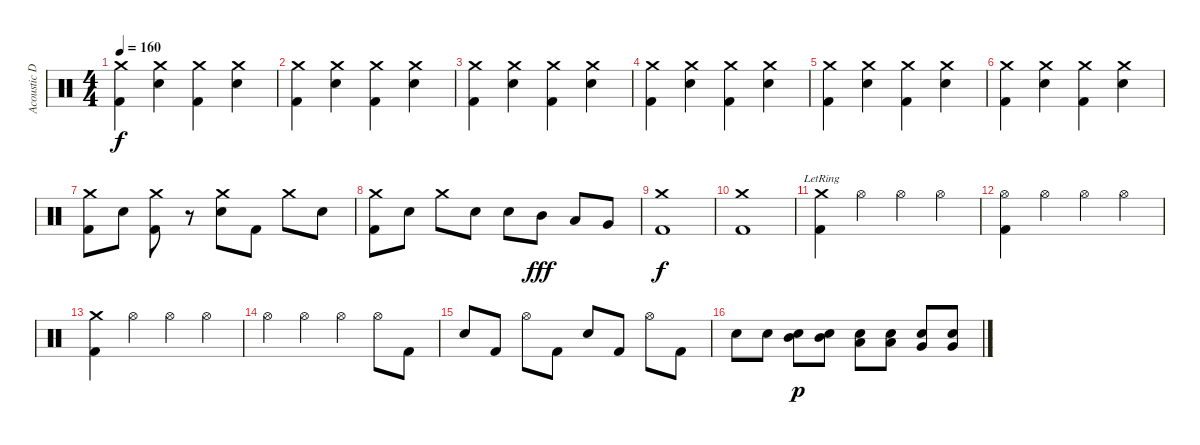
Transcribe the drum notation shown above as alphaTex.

\track ("Acoustic Drums" "Acoustic D") {instrument percussion}
\staff {score}
\articulation defaults
\ts (4 4)
\tempo 160
\clef neutral
\ks c
("Crash medium (hit)" "Kick (hit) 2").4{dy f} ("Crash medium (hit)" "Snare (hit) 2").4 ("Crash medium (hit)" "Kick (hit) 2").4 ("Crash medium (hit)" "Snare (hit) 2").4 |
("Crash medium (hit)" "Kick (hit) 2").4 ("Crash medium (hit)" "Snare (hit) 2").4 ("Crash medium (hit)" "Kick (hit) 2").4 ("Crash medium (hit)" "Snare (hit) 2").4 |
("Crash medium (hit)" "Kick (hit) 2").4 ("Crash medium (hit)" "Snare (hit) 2").4 ("Crash medium (hit)" "Kick (hit) 2").4 ("Crash medium (hit)" "Snare (hit) 2").4 |
("Crash medium (hit)" "Kick (hit) 2").4 ("Crash medium (hit)" "Snare (hit) 2").4 ("Crash medium (hit)" "Kick (hit) 2").4 ("Crash medium (hit)" "Snare (hit) 2").4 |
("Crash medium (hit)" "Kick (hit) 2").4 ("Crash medium (hit)" "Snare (hit) 2").4 ("Crash medium (hit)" "Kick (hit) 2").4 ("Crash medium (hit)" "Snare (hit) 2").4 |
("Crash medium (hit)" "Kick (hit) 2").4 ("Crash medium (hit)" "Snare (hit) 2").4 ("Crash medium (hit)" "Kick (hit) 2").4 ("Crash medium (hit)" "Snare (hit) 2").4 |
("Crash medium (hit)" "Kick (hit) 2").8 "Snare (hit) 2".8 ("Crash medium (hit)" "Kick (hit) 2").8 r.8 ("Crash medium (hit)" "Snare (hit) 2").8 "Kick (hit) 2".8 "Crash medium (hit)".8 "Snare (hit) 2".8 |
("Crash medium (hit)" "Kick (hit) 2").8 "Snare (hit) 2".8 "Crash medium (hit)".8 "Snare (hit) 2".8 "Snare (hit) 2".8 "Mid Tom (hit)".8{dy fff} "Low Tom (hit)".8 "Very Low Tom (hit)".8 |
("Crash medium (hit)" "Kick (hit) 2").1{dy f} |
("Crash medium (hit)" "Kick (hit) 2").1 |
("Crash medium (hit)"{lr} "Kick (hit) 2").4 "Hi-Hat (open)".4 "Hi-Hat (open)".4 "Hi-Hat (open)".4 |
("Hi-Hat (open)" "Kick (hit) 2").4 "Hi-Hat (open)".4 "Hi-Hat (open)".4 "Hi-Hat (open)".4 |
("Crash medium (hit)" "Kick (hit) 2").4 "Hi-Hat (open)".4 "Hi-Hat (open)".4 "Hi-Hat (open)".4 |
"Hi-Hat (open)".4 "Hi-Hat (open)".4 "Hi-Hat (open)".4 "Hi-Hat (open)".8 "Kick (hit) 2".8 |
"Snare (hit) 2".8 "Kick (hit) 2".8 "Hi-Hat (open)".8 "Kick (hit) 2".8 "Snare (hit) 2".8 "Kick (hit) 2".8 "Hi-Hat (open)".8 "Kick (hit) 2".8 |
"Snare (hit) 2".8 "Snare (hit) 2".8 ("Snare (hit) 2" "Mid Tom (hit)").8{dy p} ("Snare (hit) 2" "Mid Tom (hit)").8 ("Snare (hit) 2" "Low Tom (hit)").8 ("Snare (hit) 2" "Low Tom (hit)").8 ("Snare (hit) 2" "Very Low Tom (hit)").8 ("Snare (hit) 2" "Very Low Tom (hit)").8
